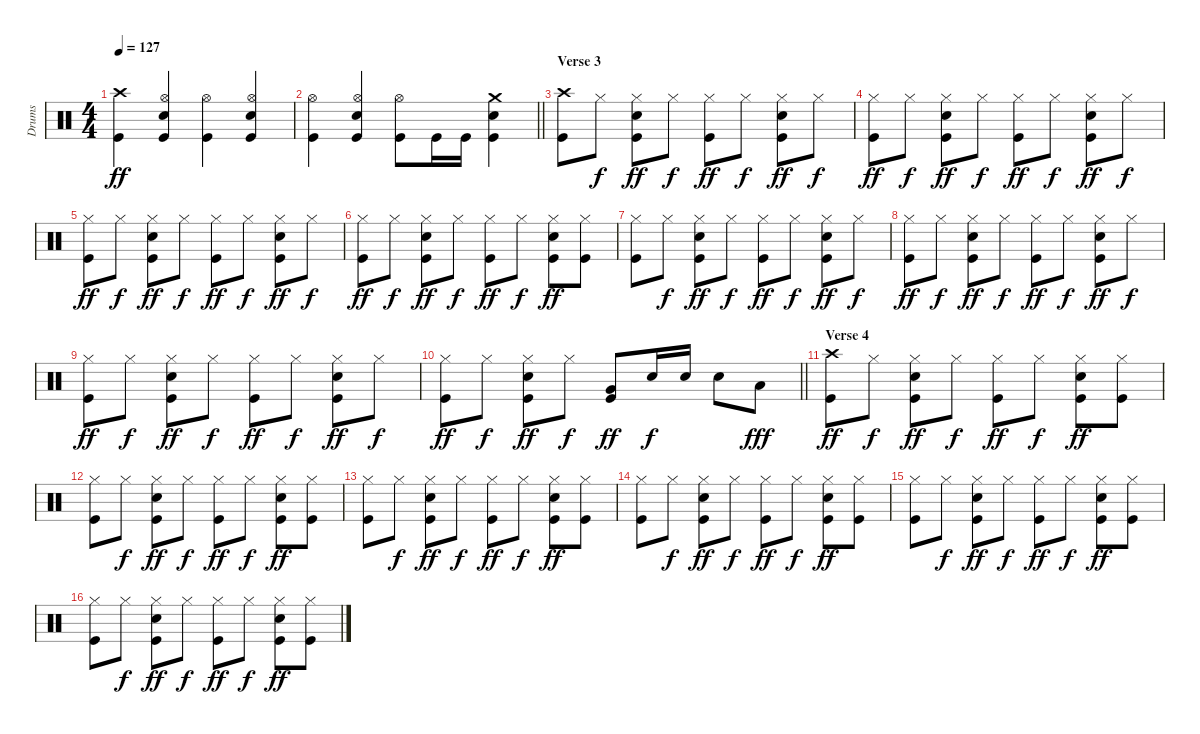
\track ("Drums" "Drums") {instrument percussion}
\staff {score}
\articulation defaults
\ts (4 4)
\tempo 127
\clef neutral
\ks c
("Crash high (hit)" "Kick (hit)").4{dy ff} ("Hi-Hat (open)" "Electric Snare (hit)" "Kick (hit)").4 ("Hi-Hat (open)" "Kick (hit)").4 ("Hi-Hat (open)" "Electric Snare (hit)" "Kick (hit)").4 |
\barLineRight lightlight
("Hi-Hat (open)" "Kick (hit)").4 ("Hi-Hat (open)" "Electric Snare (hit)" "Kick (hit)").4 ("Hi-Hat (open)" "Kick (hit)").8 "Kick (hit)".16 "Kick (hit)".16 ("Crash medium (hit)" "Electric Snare (hit)" "Kick (hit)").4 |
\section ("" "Verse 3")
("Crash high (hit)" "Kick (hit)").8 "Hi-Hat (closed)".8{dy f} ("Hi-Hat (closed)" "Electric Snare (hit)" "Kick (hit)").8{dy ff} "Hi-Hat (closed)".8{dy f} ("Hi-Hat (closed)" "Kick (hit)").8{dy ff} "Hi-Hat (closed)".8{dy f} ("Hi-Hat (closed)" "Electric Snare (hit)" "Kick (hit)").8{dy ff} "Hi-Hat (closed)".8{dy f} |
("Hi-Hat (closed)" "Kick (hit)").8{dy ff} "Hi-Hat (closed)".8{dy f} ("Hi-Hat (closed)" "Electric Snare (hit)" "Kick (hit)").8{dy ff} "Hi-Hat (closed)".8{dy f} ("Hi-Hat (closed)" "Kick (hit)").8{dy ff} "Hi-Hat (closed)".8{dy f} ("Hi-Hat (closed)" "Electric Snare (hit)" "Kick (hit)").8{dy ff} "Hi-Hat (closed)".8{dy f} |
("Hi-Hat (closed)" "Kick (hit)").8{dy ff} "Hi-Hat (closed)".8{dy f} ("Hi-Hat (closed)" "Electric Snare (hit)" "Kick (hit)").8{dy ff} "Hi-Hat (closed)".8{dy f} ("Hi-Hat (closed)" "Kick (hit)").8{dy ff} "Hi-Hat (closed)".8{dy f} ("Hi-Hat (closed)" "Electric Snare (hit)" "Kick (hit)").8{dy ff} "Hi-Hat (closed)".8{dy f} |
("Hi-Hat (closed)" "Kick (hit)").8{dy ff} "Hi-Hat (closed)".8{dy f} ("Hi-Hat (closed)" "Electric Snare (hit)" "Kick (hit)").8{dy ff} "Hi-Hat (closed)".8{dy f} ("Hi-Hat (closed)" "Kick (hit)").8{dy ff} "Hi-Hat (closed)".8{dy f} ("Hi-Hat (closed)" "Electric Snare (hit)" "Kick (hit)").8{dy ff} ("Hi-Hat (closed)" "Kick (hit)").8 |
("Hi-Hat (closed)" "Kick (hit)").8 "Hi-Hat (closed)".8{dy f} ("Hi-Hat (closed)" "Electric Snare (hit)" "Kick (hit)").8{dy ff} "Hi-Hat (closed)".8{dy f} ("Hi-Hat (closed)" "Kick (hit)").8{dy ff} "Hi-Hat (closed)".8{dy f} ("Hi-Hat (closed)" "Electric Snare (hit)" "Kick (hit)").8{dy ff} "Hi-Hat (closed)".8{dy f} |
("Hi-Hat (closed)" "Kick (hit)").8{dy ff} "Hi-Hat (closed)".8{dy f} ("Hi-Hat (closed)" "Electric Snare (hit)" "Kick (hit)").8{dy ff} "Hi-Hat (closed)".8{dy f} ("Hi-Hat (closed)" "Kick (hit)").8{dy ff} "Hi-Hat (closed)".8{dy f} ("Hi-Hat (closed)" "Electric Snare (hit)" "Kick (hit)").8{dy ff} "Hi-Hat (closed)".8{dy f} |
("Hi-Hat (closed)" "Kick (hit)").8{dy ff} "Hi-Hat (closed)".8{dy f} ("Hi-Hat (closed)" "Electric Snare (hit)" "Kick (hit)").8{dy ff} "Hi-Hat (closed)".8{dy f} ("Hi-Hat (closed)" "Kick (hit)").8{dy ff} "Hi-Hat (closed)".8{dy f} ("Hi-Hat (closed)" "Electric Snare (hit)" "Kick (hit)").8{dy ff} "Hi-Hat (closed)".8{dy f} |
\barLineRight lightlight
("Hi-Hat (closed)" "Kick (hit)").8{dy ff} "Hi-Hat (closed)".8{dy f} ("Hi-Hat (closed)" "Electric Snare (hit)" "Kick (hit)").8{dy ff} "Hi-Hat (closed)".8{dy f} ("Very Low Tom (hit)" "Kick (hit)").8{dy ff} "Electric Snare (hit)".16{dy f} "Electric Snare (hit)".16 "Electric Snare (hit)".8 "Low Tom (hit)".8{dy fff} |
\section ("" "Verse 4")
("Crash high (hit)" "Kick (hit)").8{dy ff} "Hi-Hat (closed)".8{dy f} ("Hi-Hat (closed)" "Electric Snare (hit)" "Kick (hit)").8{dy ff} "Hi-Hat (closed)".8{dy f} ("Hi-Hat (closed)" "Kick (hit)").8{dy ff} "Hi-Hat (closed)".8{dy f} ("Hi-Hat (closed)" "Electric Snare (hit)" "Kick (hit)").8{dy ff} ("Hi-Hat (closed)" "Kick (hit)").8 |
("Hi-Hat (closed)" "Kick (hit)").8 "Hi-Hat (closed)".8{dy f} ("Hi-Hat (closed)" "Electric Snare (hit)" "Kick (hit)").8{dy ff} "Hi-Hat (closed)".8{dy f} ("Hi-Hat (closed)" "Kick (hit)").8{dy ff} "Hi-Hat (closed)".8{dy f} ("Hi-Hat (closed)" "Electric Snare (hit)" "Kick (hit)").8{dy ff} ("Hi-Hat (closed)" "Kick (hit)").8 |
("Hi-Hat (closed)" "Kick (hit)").8 "Hi-Hat (closed)".8{dy f} ("Hi-Hat (closed)" "Electric Snare (hit)" "Kick (hit)").8{dy ff} "Hi-Hat (closed)".8{dy f} ("Hi-Hat (closed)" "Kick (hit)").8{dy ff} "Hi-Hat (closed)".8{dy f} ("Hi-Hat (closed)" "Electric Snare (hit)" "Kick (hit)").8{dy ff} ("Hi-Hat (closed)" "Kick (hit)").8 |
("Hi-Hat (closed)" "Kick (hit)").8 "Hi-Hat (closed)".8{dy f} ("Hi-Hat (closed)" "Electric Snare (hit)" "Kick (hit)").8{dy ff} "Hi-Hat (closed)".8{dy f} ("Hi-Hat (closed)" "Kick (hit)").8{dy ff} "Hi-Hat (closed)".8{dy f} ("Hi-Hat (closed)" "Electric Snare (hit)" "Kick (hit)").8{dy ff} ("Hi-Hat (closed)" "Kick (hit)").8 |
("Hi-Hat (closed)" "Kick (hit)").8 "Hi-Hat (closed)".8{dy f} ("Hi-Hat (closed)" "Electric Snare (hit)" "Kick (hit)").8{dy ff} "Hi-Hat (closed)".8{dy f} ("Hi-Hat (closed)" "Kick (hit)").8{dy ff} "Hi-Hat (closed)".8{dy f} ("Hi-Hat (closed)" "Electric Snare (hit)" "Kick (hit)").8{dy ff} ("Hi-Hat (closed)" "Kick (hit)").8 |
("Hi-Hat (closed)" "Kick (hit)").8 "Hi-Hat (closed)".8{dy f} ("Hi-Hat (closed)" "Electric Snare (hit)" "Kick (hit)").8{dy ff} "Hi-Hat (closed)".8{dy f} ("Hi-Hat (closed)" "Kick (hit)").8{dy ff} "Hi-Hat (closed)".8{dy f} ("Hi-Hat (closed)" "Electric Snare (hit)" "Kick (hit)").8{dy ff} ("Hi-Hat (closed)" "Kick (hit)").8
